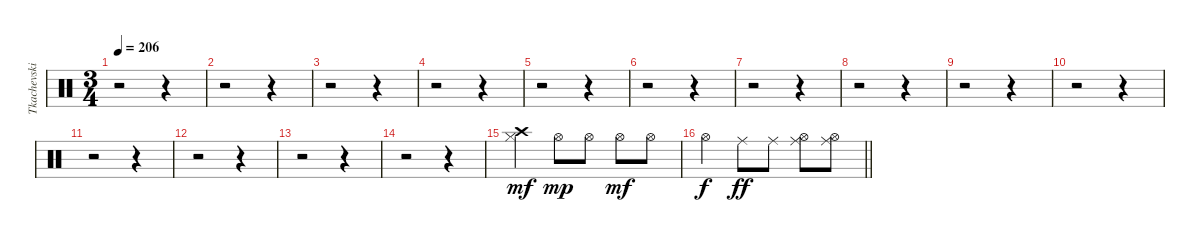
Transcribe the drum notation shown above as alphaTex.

\track ("Tkachevskiy A" "Tkachevski") {instrument percussion}
\staff {score}
\articulation defaults
\ts (3 4)
\tempo 206
\clef neutral
\ks c
r.2{dy mf} r.4 |
r.2 r.4 |
r.2 r.4 |
r.2 r.4 |
r.2 r.4 |
r.2 r.4 |
r.2 r.4 |
r.2 r.4 |
r.2 r.4 |
r.2 r.4 |
r.2 r.4 |
r.2 r.4 |
r.2 r.4 |
r.2 r.4 |
("Hi-Hat (closed)" "Crash high (hit)").4 "Hi-Hat (open)".8{dy mp} "Hi-Hat (open)".8 "Hi-Hat (open)".8{dy mf} "Hi-Hat (open)".8 |
\barLineRight lightlight "Hi-Hat (open)".4{dy f} "Ride (middle)".8{dy ff} "Ride (middle)".8
("Hi-Hat (open)" "Ride (middle)").8 ("Hi-Hat (open)" "Ride (middle)").8
